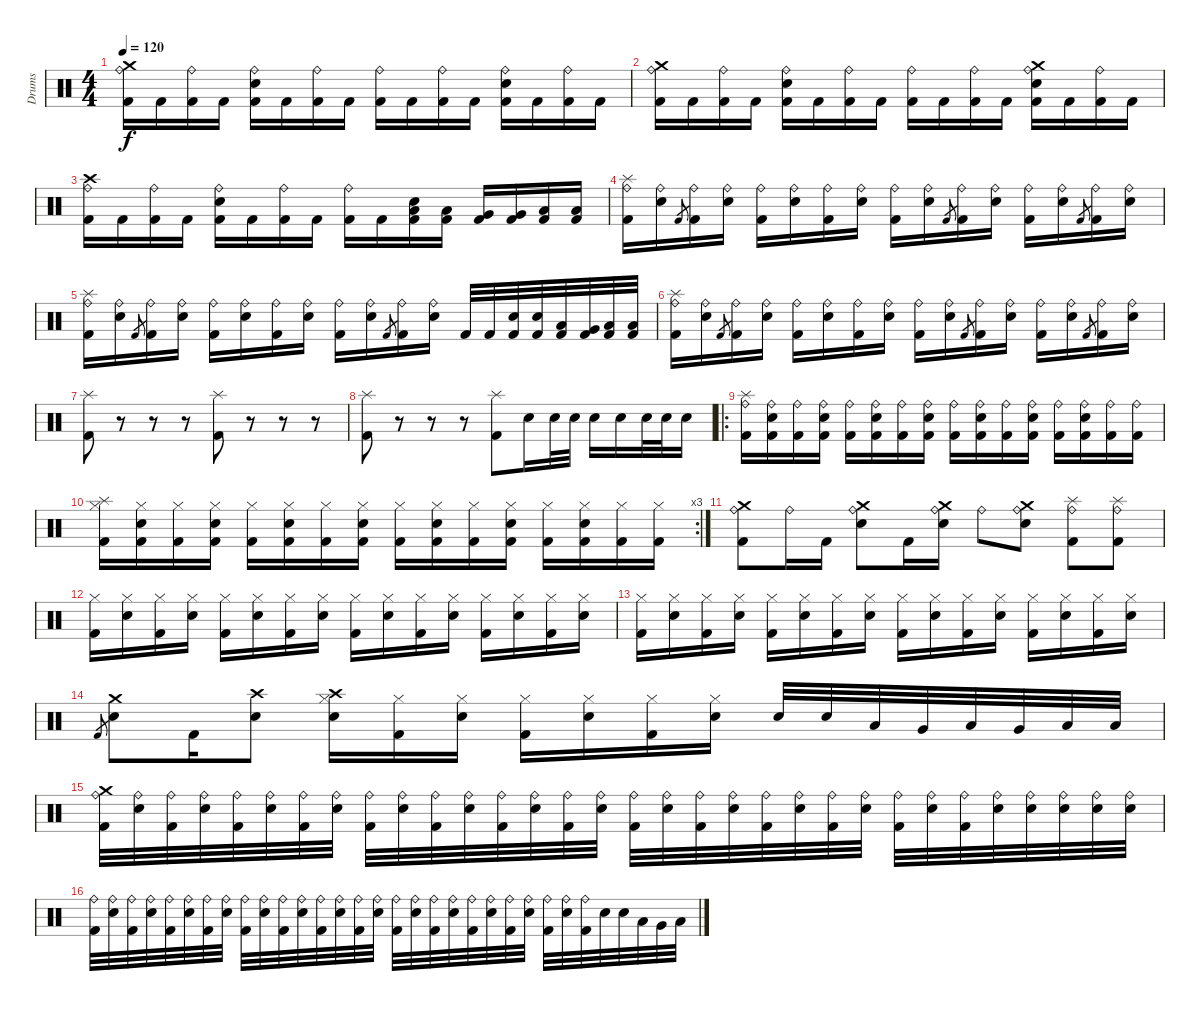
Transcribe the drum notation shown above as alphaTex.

\track ("Drums" "Drums") {instrument percussion}
\staff {score}
\articulation defaults
\ts (4 4)
\tempo 120
\clef neutral
\ks c
("Crash medium (hit)" "Ride (bell)" "Kick (hit) 2").16{dy f} "Kick (hit) 2".16 ("Ride (bell)" "Kick (hit) 2").16 "Kick (hit) 2".16 ("Electric Snare (hit)" "Ride (bell)" "Kick (hit) 2").16 "Kick (hit) 2".16 ("Ride (bell)" "Kick (hit) 2").16 "Kick (hit) 2".16 ("Ride (bell)" "Kick (hit) 2").16 "Kick (hit) 2".16 ("Ride (bell)" "Kick (hit) 2").16 "Kick (hit) 2".16 ("Electric Snare (hit)" "Ride (bell)" "Kick (hit) 2").16 "Kick (hit) 2".16 ("Ride (bell)" "Kick (hit) 2").16 "Kick (hit) 2".16 |
("Crash medium (hit)" "Ride (bell)" "Kick (hit) 2").16 "Kick (hit) 2".16 ("Ride (bell)" "Kick (hit) 2").16 "Kick (hit) 2".16 ("Electric Snare (hit)" "Ride (bell)" "Kick (hit) 2").16 "Kick (hit) 2".16 ("Ride (bell)" "Kick (hit) 2").16 "Kick (hit) 2".16 ("Ride (bell)" "Kick (hit) 2").16 "Kick (hit) 2".16 ("Ride (bell)" "Kick (hit) 2").16 "Kick (hit) 2".16 ("Crash medium (hit)" "Electric Snare (hit)" "Ride (bell)" "Kick (hit) 2").16 "Kick (hit) 2".16 ("Ride (bell)" "Kick (hit) 2").16 "Kick (hit) 2".16 |
("Crash high (hit)" "Ride (bell)" "Kick (hit) 2").16 "Kick (hit) 2".16 ("Ride (bell)" "Kick (hit) 2").16 "Kick (hit) 2".16 ("Electric Snare (hit)" "Ride (bell)" "Kick (hit) 2").16 "Kick (hit) 2".16 ("Ride (bell)" "Kick (hit) 2").16 "Kick (hit) 2".16 ("Ride (bell)" "Kick (hit) 2").16 "Kick (hit) 2".16 ("Electric Snare (hit)" "Low Tom (hit)" "Kick (hit) 2").16 ("Low Tom (hit)" "Kick (hit) 2").16 ("Very Low Tom (hit)" "Kick (hit) 2").16 ("Very Low Tom (hit)" "Kick (hit) 2").16 ("Low Floor Tom (hit)" "Kick (hit) 2").16 ("Low Floor Tom (hit)" "Kick (hit) 2").16 |
("Splash (hit)" "Ride (bell)" "Kick (hit) 2").16 ("Ride (bell)" "Electric Snare (hit)").16 "Kick (hit) 2".8{gr} ("Ride (bell)" "Kick (hit) 2").16 ("Ride (bell)" "Electric Snare (hit)").16 ("Ride (bell)" "Kick (hit) 2").16 ("Ride (bell)" "Electric Snare (hit)").16 ("Ride (bell)" "Kick (hit) 2").16 ("Ride (bell)" "Electric Snare (hit)").16 ("Ride (bell)" "Kick (hit) 2").16 ("Ride (bell)" "Electric Snare (hit)").16 "Kick (hit) 2".8{gr} ("Ride (bell)" "Kick (hit) 2").16 ("Ride (bell)" "Electric Snare (hit)").16 ("Ride (bell)" "Kick (hit) 2").16 ("Ride (bell)" "Electric Snare (hit)").16 "Kick (hit) 2".8{gr} ("Ride (bell)" "Kick (hit) 2").16 ("Ride (bell)" "Electric Snare (hit)").16 |
("Splash (hit)" "Ride (bell)" "Kick (hit) 2").16 ("Ride (bell)" "Electric Snare (hit)").16 "Kick (hit) 2".8{gr} ("Ride (bell)" "Kick (hit) 2").16 ("Ride (bell)" "Electric Snare (hit)").16 ("Ride (bell)" "Kick (hit) 2").16 ("Ride (bell)" "Electric Snare (hit)").16 ("Ride (bell)" "Kick (hit) 2").16 ("Ride (bell)" "Electric Snare (hit)").16 ("Ride (bell)" "Kick (hit) 2").16 ("Ride (bell)" "Electric Snare (hit)").16 "Kick (hit) 2".8{gr} ("Ride (bell)" "Kick (hit) 2").16 ("Ride (bell)" "Electric Snare (hit)").16 "Kick (hit) 2".32 "Kick (hit) 2".32 ("Electric Snare (hit)" "Kick (hit) 2").32 ("Electric Snare (hit)" "Kick (hit) 2").32 ("Low Tom (hit)" "Kick (hit) 2").32 ("Very Low Tom (hit)" "Kick (hit) 2").32 ("Low Floor Tom (hit)" "Kick (hit) 2").32 ("Low Floor Tom (hit)" "Kick (hit) 2").32 |
("Splash (hit)" "Ride (bell)" "Kick (hit) 2").16 ("Ride (bell)" "Electric Snare (hit)").16 "Kick (hit) 2".8{gr} ("Ride (bell)" "Kick (hit) 2").16 ("Ride (bell)" "Electric Snare (hit)").16 ("Ride (bell)" "Kick (hit) 2").16 ("Ride (bell)" "Electric Snare (hit)").16 ("Ride (bell)" "Kick (hit) 2").16 ("Ride (bell)" "Electric Snare (hit)").16 ("Ride (bell)" "Kick (hit) 2").16 ("Ride (bell)" "Electric Snare (hit)").16 "Kick (hit) 2".8{gr} ("Ride (bell)" "Kick (hit) 2").16 ("Ride (bell)" "Electric Snare (hit)").16 ("Ride (bell)" "Kick (hit) 2").16 ("Ride (bell)" "Electric Snare (hit)").16 "Kick (hit) 2".8{gr} ("Ride (bell)" "Kick (hit) 2").16 ("Ride (bell)" "Electric Snare (hit)").16 |
("Splash (hit)" "Kick (hit) 2").8 r.8 r.8 r.8 ("Splash (hit)" "Kick (hit) 2").8 r.8 r.8 r.8 |
("Splash (hit)" "Kick (hit) 2").8 r.8 r.8 r.8 ("Splash (hit)" "Kick (hit) 2").8 "Electric Snare (hit)".16 "Electric Snare (hit)".32 "Electric Snare (hit)".32 "Electric Snare (hit)".16 "Electric Snare (hit)".16 "Electric Snare (hit)".32 "Electric Snare (hit)".32 "Electric Snare (hit)".16 |
\ro
("Splash (hit)" "Ride (bell)" "Kick (hit) 2").16 ("Ride (bell)" "Kick (hit) 2" "Electric Snare (hit)").16 ("Ride (bell)" "Kick (hit) 2").16 ("Ride (bell)" "Kick (hit) 2" "Electric Snare (hit)").16 ("Ride (bell)" "Kick (hit) 2").16 ("Ride (bell)" "Kick (hit) 2" "Electric Snare (hit)").16 ("Ride (bell)" "Kick (hit) 2").16 ("Ride (bell)" "Kick (hit) 2" "Electric Snare (hit)").16 ("Ride (bell)" "Kick (hit) 2").16 ("Ride (bell)" "Kick (hit) 2" "Electric Snare (hit)").16 ("Ride (bell)" "Kick (hit) 2").16 ("Ride (bell)" "Kick (hit) 2" "Electric Snare (hit)").16 ("Ride (bell)" "Kick (hit) 2").16 ("Ride (bell)" "Kick (hit) 2" "Electric Snare (hit)").16 ("Ride (bell)" "Kick (hit) 2").16 ("Ride (bell)" "Kick (hit) 2").16 |
\rc 3
("Splash (hit)" "Hi-Hat (closed)" "Kick (hit) 2").16 ("Hi-Hat (closed)" "Kick (hit) 2" "Electric Snare (hit)").16 ("Hi-Hat (closed)" "Kick (hit) 2").16 ("Hi-Hat (closed)" "Kick (hit) 2" "Electric Snare (hit)").16 ("Hi-Hat (closed)" "Kick (hit) 2").16 ("Hi-Hat (closed)" "Kick (hit) 2" "Electric Snare (hit)").16 ("Hi-Hat (closed)" "Kick (hit) 2").16 ("Hi-Hat (closed)" "Kick (hit) 2" "Electric Snare (hit)").16 ("Hi-Hat (closed)" "Kick (hit) 2").16 ("Hi-Hat (closed)" "Kick (hit) 2" "Electric Snare (hit)").16 ("Hi-Hat (closed)" "Kick (hit) 2").16 ("Hi-Hat (closed)" "Kick (hit) 2" "Electric Snare (hit)").16 ("Hi-Hat (closed)" "Kick (hit) 2").16 ("Hi-Hat (closed)" "Kick (hit) 2" "Electric Snare (hit)").16 ("Hi-Hat (closed)" "Kick (hit) 2").16 ("Hi-Hat (closed)" "Kick (hit) 2").16 |
("Crash medium (hit)" "Ride (bell)" "Kick (hit) 2").8 "Ride (bell)".16 "Kick (hit) 2".16 ("Crash medium (hit)" "Ride (bell)" "Electric Snare (hit)").8 "Kick (hit) 2".16 ("Crash medium (hit)" "Ride (bell)" "Electric Snare (hit)").16 "Ride (bell)".8 ("Electric Snare (hit)" "Ride (bell)" "Crash medium (hit)").8 ("Splash (hit)" "Ride (bell)" "Kick (hit) 2").8 ("Splash (hit)" "Ride (bell)" "Kick (hit) 2").8 |
("Kick (hit) 2" "Hi-Hat (closed)").16 ("Electric Snare (hit)" "Hi-Hat (closed)").16 ("Kick (hit) 2" "Hi-Hat (closed)").16 ("Electric Snare (hit)" "Hi-Hat (closed)").16 ("Kick (hit) 2" "Hi-Hat (closed)").16 ("Electric Snare (hit)" "Hi-Hat (closed)").16 ("Kick (hit) 2" "Hi-Hat (closed)").16 ("Electric Snare (hit)" "Hi-Hat (closed)").16 ("Kick (hit) 2" "Hi-Hat (closed)").16 ("Electric Snare (hit)" "Hi-Hat (closed)").16 ("Kick (hit) 2" "Hi-Hat (closed)").16 ("Electric Snare (hit)" "Hi-Hat (closed)").16 ("Kick (hit) 2" "Hi-Hat (closed)").16 ("Electric Snare (hit)" "Hi-Hat (closed)").16 ("Kick (hit) 2" "Hi-Hat (closed)").16 ("Electric Snare (hit)" "Hi-Hat (closed)").16 |
("Kick (hit) 2" "Hi-Hat (closed)").16 ("Electric Snare (hit)" "Hi-Hat (closed)").16 ("Kick (hit) 2" "Hi-Hat (closed)").16 ("Electric Snare (hit)" "Hi-Hat (closed)").16 ("Kick (hit) 2" "Hi-Hat (closed)").16 ("Electric Snare (hit)" "Hi-Hat (closed)").16 ("Kick (hit) 2" "Hi-Hat (closed)").16 ("Electric Snare (hit)" "Hi-Hat (closed)").16 ("Kick (hit) 2" "Hi-Hat (closed)").16 ("Electric Snare (hit)" "Hi-Hat (closed)").16 ("Kick (hit) 2" "Hi-Hat (closed)").16 ("Electric Snare (hit)" "Hi-Hat (closed)").16 ("Kick (hit) 2" "Hi-Hat (closed)").16 ("Electric Snare (hit)" "Hi-Hat (closed)").16 ("Kick (hit) 2" "Hi-Hat (closed)").16 ("Electric Snare (hit)" "Hi-Hat (closed)").16 |
"Kick (hit) 2".8{gr} ("Electric Snare (hit)" "Crash medium (hit)").8 "Kick (hit) 2".16 ("Electric Snare (hit)" "Crash high (hit)").8 ("Crash high (hit)" "Electric Snare (hit)" "Hi-Hat (closed)").16 ("Kick (hit) 2" "Hi-Hat (closed)").16 ("Electric Snare (hit)" "Hi-Hat (closed)").16 ("Kick (hit) 2" "Hi-Hat (closed)").16 ("Electric Snare (hit)" "Hi-Hat (closed)").16 ("Kick (hit) 2" "Hi-Hat (closed)").16 ("Electric Snare (hit)" "Hi-Hat (closed)").16 "Electric Snare (hit)".32 "Electric Snare (hit)".32 "Low Tom (hit)".32 "Very Low Tom (hit)".32 "Low Tom (hit)".32 "Very Low Tom (hit)".32 "Low Floor Tom (hit)".32 "Low Floor Tom (hit)".32 |
("Kick (hit) 2" "Ride (bell)" "Crash medium (hit)").32 ("Electric Snare (hit)" "Ride (bell)").32 ("Kick (hit) 2" "Ride (bell)").32 ("Electric Snare (hit)" "Ride (bell)").32 ("Kick (hit) 2" "Ride (bell)").32 ("Electric Snare (hit)" "Ride (bell)").32 ("Kick (hit) 2" "Ride (bell)").32 ("Electric Snare (hit)" "Ride (bell)").32 ("Kick (hit) 2" "Ride (bell)").32 ("Electric Snare (hit)" "Ride (bell)").32 ("Kick (hit) 2" "Ride (bell)").32 ("Electric Snare (hit)" "Ride (bell)").32 ("Kick (hit) 2" "Ride (bell)").32 ("Electric Snare (hit)" "Ride (bell)").32 ("Kick (hit) 2" "Ride (bell)").32 ("Electric Snare (hit)" "Ride (bell)").32 ("Kick (hit) 2" "Ride (bell)").32 ("Electric Snare (hit)" "Ride (bell)").32 ("Kick (hit) 2" "Ride (bell)").32 ("Electric Snare (hit)" "Ride (bell)").32 ("Kick (hit) 2" "Ride (bell)").32 ("Electric Snare (hit)" "Ride (bell)").32 ("Kick (hit) 2" "Ride (bell)").32 ("Electric Snare (hit)" "Ride (bell)").32 ("Kick (hit) 2" "Ride (bell)").32 ("Electric Snare (hit)" "Ride (bell)").32 ("Kick (hit) 2" "Ride (bell)").32 ("Electric Snare (hit)" "Ride (bell)").32 ("Electric Snare (hit)" "Ride (bell)").32 ("Electric Snare (hit)" "Ride (bell)").32 ("Electric Snare (hit)" "Ride (bell)").32 ("Electric Snare (hit)" "Ride (bell)").32 |
("Kick (hit) 2" "Ride (bell)").32 ("Electric Snare (hit)" "Ride (bell)").32 ("Kick (hit) 2" "Ride (bell)").32 ("Electric Snare (hit)" "Ride (bell)").32 ("Kick (hit) 2" "Ride (bell)").32 ("Electric Snare (hit)" "Ride (bell)").32 ("Kick (hit) 2" "Ride (bell)").32 ("Electric Snare (hit)" "Ride (bell)").32 ("Kick (hit) 2" "Ride (bell)").32 ("Electric Snare (hit)" "Ride (bell)").32 ("Kick (hit) 2" "Ride (bell)").32 ("Electric Snare (hit)" "Ride (bell)").32 ("Kick (hit) 2" "Ride (bell)").32 ("Electric Snare (hit)" "Ride (bell)").32 ("Kick (hit) 2" "Ride (bell)").32 ("Electric Snare (hit)" "Ride (bell)").32 ("Kick (hit) 2" "Ride (bell)").32 ("Electric Snare (hit)" "Ride (bell)").32 ("Kick (hit) 2" "Ride (bell)").32 ("Electric Snare (hit)" "Ride (bell)").32 ("Kick (hit) 2" "Ride (bell)").32 ("Electric Snare (hit)" "Ride (bell)").32 ("Kick (hit) 2" "Ride (bell)").32 ("Electric Snare (hit)" "Ride (bell)").32 ("Kick (hit) 2" "Ride (bell)").32 ("Electric Snare (hit)" "Ride (bell)").32 ("Kick (hit) 2" "Ride (bell)").32 "Electric Snare (hit)".32 "Electric Snare (hit)".32 "Low Tom (hit)".32 "Very Low Tom (hit)".32 "Low Floor Tom (hit)".32
